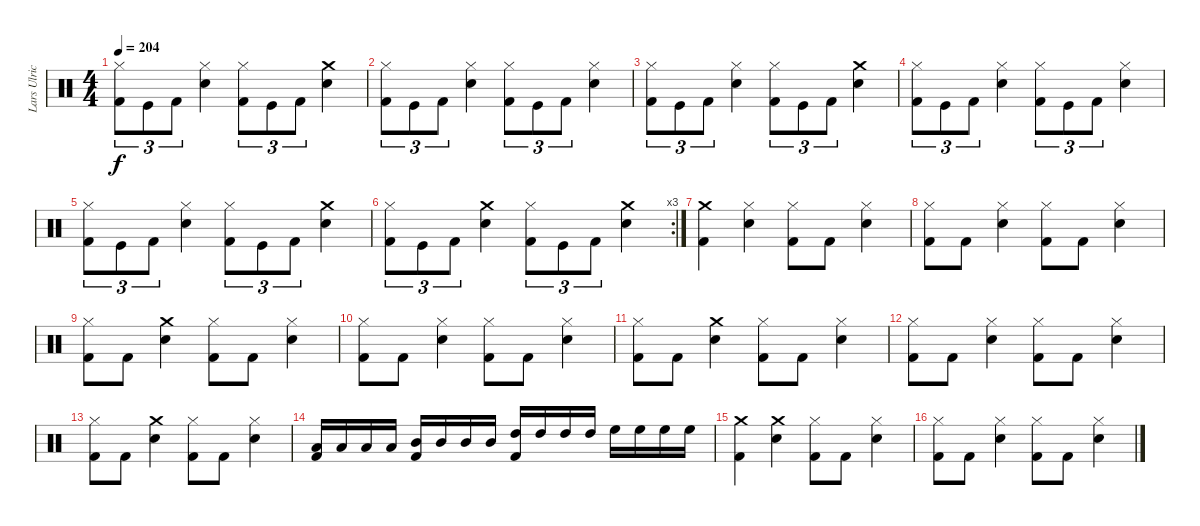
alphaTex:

\track ("Lars Ulrich (Drums)" "Lars Ulric") {instrument percussion}
\staff {score}
\articulation defaults
\ts (4 4)
\tempo 204
\clef neutral
\ks c
("Hi-Hat (closed)" "Kick (hit) 2").8{tu (3 2) dy f} "Kick (hit)".8{tu (3 2)} "Kick (hit) 2".8{tu (3 2)} ("Snare (hit) 2" "Hi-Hat (closed)").4 ("Hi-Hat (closed)" "Kick (hit) 2").8{tu (3 2)} "Kick (hit)".8{tu (3 2)} "Kick (hit) 2".8{tu (3 2)} ("Crash medium (hit)" "Snare (hit) 2").4 |
("Hi-Hat (closed)" "Kick (hit) 2").8{tu (3 2)} "Kick (hit)".8{tu (3 2)} "Kick (hit) 2".8{tu (3 2)} ("Snare (hit) 2" "Hi-Hat (closed)").4 ("Hi-Hat (closed)" "Kick (hit) 2").8{tu (3 2)} "Kick (hit)".8{tu (3 2)} "Kick (hit) 2".8{tu (3 2)} ("Hi-Hat (closed)" "Snare (hit) 2").4 |
("Hi-Hat (closed)" "Kick (hit) 2").8{tu (3 2)} "Kick (hit)".8{tu (3 2)} "Kick (hit) 2".8{tu (3 2)} ("Snare (hit) 2" "Hi-Hat (closed)").4 ("Hi-Hat (closed)" "Kick (hit) 2").8{tu (3 2)} "Kick (hit)".8{tu (3 2)} "Kick (hit) 2".8{tu (3 2)} ("Crash medium (hit)" "Snare (hit) 2").4 |
("Hi-Hat (closed)" "Kick (hit) 2").8{tu (3 2)} "Kick (hit)".8{tu (3 2)} "Kick (hit) 2".8{tu (3 2)} ("Snare (hit) 2" "Hi-Hat (closed)").4 ("Hi-Hat (closed)" "Kick (hit) 2").8{tu (3 2)} "Kick (hit)".8{tu (3 2)} "Kick (hit) 2".8{tu (3 2)} ("Hi-Hat (closed)" "Snare (hit) 2").4 |
("Hi-Hat (closed)" "Kick (hit) 2").8{tu (3 2)} "Kick (hit)".8{tu (3 2)} "Kick (hit) 2".8{tu (3 2)} ("Snare (hit) 2" "Hi-Hat (closed)").4 ("Hi-Hat (closed)" "Kick (hit) 2").8{tu (3 2)} "Kick (hit)".8{tu (3 2)} "Kick (hit) 2".8{tu (3 2)} ("Crash medium (hit)" "Snare (hit) 2").4 |
\rc 3
("Hi-Hat (closed)" "Kick (hit) 2").8{tu (3 2)} "Kick (hit)".8{tu (3 2)} "Kick (hit) 2".8{tu (3 2)} ("Crash medium (hit)" "Snare (hit) 2").4 ("Hi-Hat (closed)" "Kick (hit) 2").8{tu (3 2)} "Kick (hit)".8{tu (3 2)} "Kick (hit) 2".8{tu (3 2)} ("Crash medium (hit)" "Snare (hit) 2").4 |
("Kick (hit) 2" "Crash medium (hit)").4 ("Hi-Hat (closed)" "Snare (hit) 2").4 ("Hi-Hat (closed)" "Kick (hit) 2").8 "Kick (hit) 2".8 ("Snare (hit) 2" "Hi-Hat (closed)").4 |
("Kick (hit) 2" "Hi-Hat (closed)").8 "Kick (hit) 2".8 ("Snare (hit) 2" "Hi-Hat (closed)").4 ("Kick (hit) 2" "Hi-Hat (closed)").8 "Kick (hit) 2".8 ("Snare (hit) 2" "Hi-Hat (closed)").4 |
("Kick (hit) 2" "Hi-Hat (closed)").8 "Kick (hit) 2".8 ("Crash medium (hit)" "Snare (hit) 2").4 ("Kick (hit) 2" "Hi-Hat (closed)").8 "Kick (hit) 2".8 ("Snare (hit) 2" "Hi-Hat (closed)").4 |
("Kick (hit) 2" "Hi-Hat (closed)").8 "Kick (hit) 2".8 ("Snare (hit) 2" "Hi-Hat (closed)").4 ("Kick (hit) 2" "Hi-Hat (closed)").8 "Kick (hit) 2".8 ("Snare (hit) 2" "Hi-Hat (closed)").4 |
("Kick (hit) 2" "Hi-Hat (closed)").8 "Kick (hit) 2".8 ("Crash medium (hit)" "Snare (hit) 2").4 ("Kick (hit) 2" "Hi-Hat (closed)").8 "Kick (hit) 2".8 ("Snare (hit) 2" "Hi-Hat (closed)").4 |
("Kick (hit) 2" "Hi-Hat (closed)").8 "Kick (hit) 2".8 ("Snare (hit) 2" "Hi-Hat (closed)").4 ("Kick (hit) 2" "Hi-Hat (closed)").8 "Kick (hit) 2".8 ("Snare (hit) 2" "Hi-Hat (closed)").4 |
("Kick (hit) 2" "Hi-Hat (closed)").8 "Kick (hit) 2".8 ("Crash medium (hit)" "Snare (hit) 2").4 ("Kick (hit) 2" "Hi-Hat (closed)").8 "Kick (hit) 2".8 ("Snare (hit) 2" "Hi-Hat (closed)").4 |
("Low Tom (hit)" "Kick (hit) 2").16 "Low Tom (hit)".16 "Low Tom (hit)".16 "Low Tom (hit)".16 ("Mid Tom (hit)" "Kick (hit) 2").16 "Mid Tom (hit)".16 "Mid Tom (hit)".16 "Mid Tom (hit)".16 ("High Tom (hit)" "Kick (hit) 2").16 "High Tom (hit)".16 "High Tom (hit)".16 "High Tom (hit)".16 "High Floor Tom (hit)".16 "High Floor Tom (hit)".16 "High Floor Tom (hit)".16 "High Floor Tom (hit)".16 |
("Kick (hit) 2" "Crash medium (hit)").4 ("Snare (hit) 2" "Crash medium (hit)").4 ("Hi-Hat (closed)" "Kick (hit) 2").8 "Kick (hit) 2".8 ("Hi-Hat (closed)" "Snare (hit) 2").4 |
("Kick (hit) 2" "Hi-Hat (closed)").8 "Kick (hit) 2".8 ("Snare (hit) 2" "Hi-Hat (closed)").4 ("Kick (hit) 2" "Hi-Hat (closed)").8 "Kick (hit) 2".8 ("Snare (hit) 2" "Hi-Hat (closed)").4
